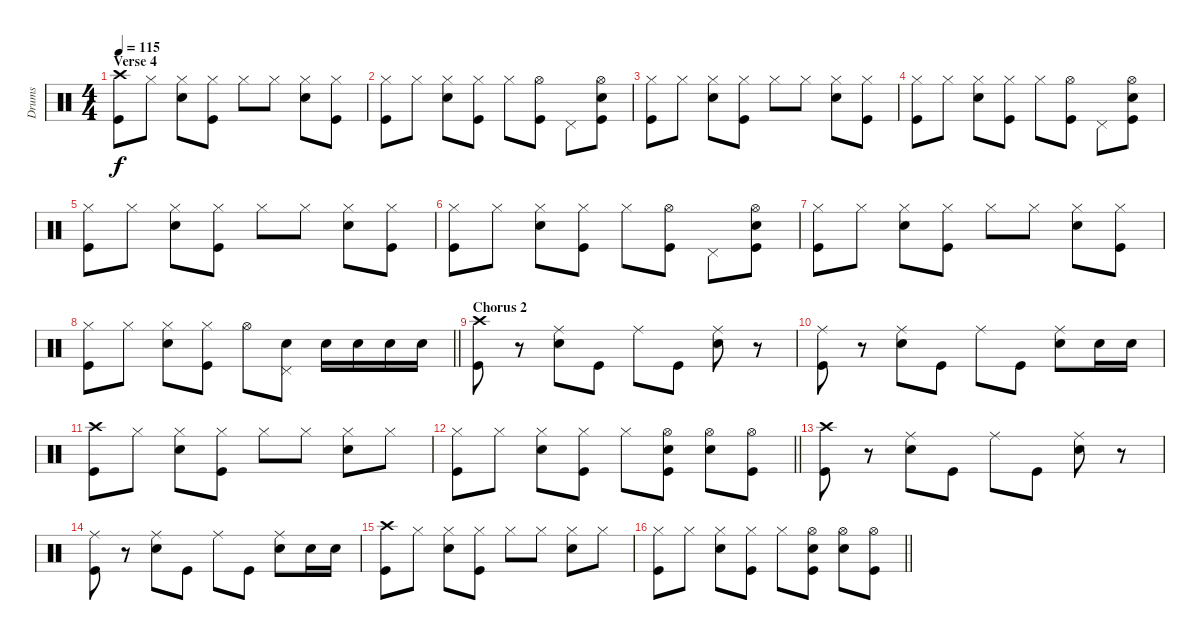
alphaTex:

\track ("Drums" "Drums") {instrument percussion}
\staff {score}
\articulation defaults
\ts (4 4)
\section ("" "Verse 4")
\tempo 115
\clef neutral
\ks c
("Crash high (hit)" "Kick (hit)").8{dy f} "Hi-Hat (closed)".8 ("Hi-Hat (closed)" "Snare (hit) 2").8 ("Hi-Hat (closed)" "Kick (hit)").8 "Hi-Hat (closed)".8 "Hi-Hat (closed)".8 ("Hi-Hat (closed)" "Snare (hit) 2").8 ("Hi-Hat (closed)" "Kick (hit)").8 |
("Hi-Hat (closed)" "Kick (hit)").8 "Hi-Hat (closed)".8 ("Hi-Hat (closed)" "Snare (hit) 2").8 ("Hi-Hat (closed)" "Kick (hit)").8 "Hi-Hat (closed)".8 ("Hi-Hat (open)" "Kick (hit)").8 "Pedal Hi-Hat (hit)".8 ("Hi-Hat (open)" "Snare (hit) 2" "Kick (hit)").8 |
("Hi-Hat (closed)" "Kick (hit)").8 "Hi-Hat (closed)".8 ("Hi-Hat (closed)" "Snare (hit) 2").8 ("Hi-Hat (closed)" "Kick (hit)").8 "Hi-Hat (closed)".8 "Hi-Hat (closed)".8 ("Hi-Hat (closed)" "Snare (hit) 2").8 ("Hi-Hat (closed)" "Kick (hit)").8 |
("Hi-Hat (closed)" "Kick (hit)").8 "Hi-Hat (closed)".8 ("Hi-Hat (closed)" "Snare (hit) 2").8 ("Hi-Hat (closed)" "Kick (hit)").8 "Hi-Hat (closed)".8 ("Hi-Hat (open)" "Kick (hit)").8 "Pedal Hi-Hat (hit)".8 ("Hi-Hat (open)" "Snare (hit) 2" "Kick (hit)").8 |
("Hi-Hat (closed)" "Kick (hit)").8 "Hi-Hat (closed)".8 ("Hi-Hat (closed)" "Snare (hit) 2").8 ("Hi-Hat (closed)" "Kick (hit)").8 "Hi-Hat (closed)".8 "Hi-Hat (closed)".8 ("Hi-Hat (closed)" "Snare (hit) 2").8 ("Hi-Hat (closed)" "Kick (hit)").8 |
("Hi-Hat (closed)" "Kick (hit)").8 "Hi-Hat (closed)".8 ("Hi-Hat (closed)" "Snare (hit) 2").8 ("Hi-Hat (closed)" "Kick (hit)").8 "Hi-Hat (closed)".8 ("Hi-Hat (open)" "Kick (hit)").8 "Pedal Hi-Hat (hit)".8 ("Hi-Hat (open)" "Snare (hit) 2" "Kick (hit)").8 |
("Hi-Hat (closed)" "Kick (hit)").8 "Hi-Hat (closed)".8 ("Hi-Hat (closed)" "Snare (hit) 2").8 ("Hi-Hat (closed)" "Kick (hit)").8 "Hi-Hat (closed)".8 "Hi-Hat (closed)".8 ("Hi-Hat (closed)" "Snare (hit) 2").8 ("Hi-Hat (closed)" "Kick (hit)").8 |
\barLineRight lightlight
("Hi-Hat (closed)" "Kick (hit)").8 "Hi-Hat (closed)".8 ("Hi-Hat (closed)" "Snare (hit) 2").8 ("Hi-Hat (closed)" "Kick (hit)").8 "Hi-Hat (open)".8 ("Pedal Hi-Hat (hit)" "Snare (hit) 2").8 "Snare (hit) 2".16 "Snare (hit) 2".16 "Snare (hit) 2".16 "Snare (hit) 2".16 |
\section ("" "Chorus 2")
("Crash high (hit)" "Kick (hit)").8 r.8 ("Ride (middle)" "Snare (hit) 2").8 "Kick (hit)".8 "Ride (middle)".8 "Kick (hit)".8 ("Ride (middle)" "Snare (hit) 2").8 r.8 |
("Ride (middle)" "Kick (hit)").8 r.8 ("Ride (middle)" "Snare (hit) 2").8 "Kick (hit)".8 "Ride (middle)".8 "Kick (hit)".8 ("Ride (middle)" "Snare (hit) 2").8 "Snare (hit) 2".16 "Snare (hit) 2".16 |
("Crash high (hit)" "Kick (hit)").8 "Hi-Hat (closed)".8 ("Hi-Hat (closed)" "Snare (hit) 2").8 ("Hi-Hat (closed)" "Kick (hit)").8 "Hi-Hat (closed)".8 "Hi-Hat (closed)".8 ("Hi-Hat (closed)" "Snare (hit) 2").8 "Hi-Hat (closed)".8 |
\barLineRight lightlight
("Hi-Hat (closed)" "Kick (hit)").8 "Hi-Hat (closed)".8 ("Hi-Hat (closed)" "Snare (hit) 2").8 ("Hi-Hat (closed)" "Kick (hit)").8 "Hi-Hat (closed)".8 ("Hi-Hat (open)" "Snare (hit) 2" "Kick (hit)").8 ("Hi-Hat (open)" "Snare (hit) 2").8 ("Hi-Hat (open)" "Kick (hit)").8 |
("Crash high (hit)" "Kick (hit)").8 r.8 ("Ride (middle)" "Snare (hit) 2").8 "Kick (hit)".8 "Ride (middle)".8 "Kick (hit)".8 ("Ride (middle)" "Snare (hit) 2").8 r.8 |
("Ride (middle)" "Kick (hit)").8 r.8 ("Ride (middle)" "Snare (hit) 2").8 "Kick (hit)".8 "Ride (middle)".8 "Kick (hit)".8 ("Ride (middle)" "Snare (hit) 2").8 "Snare (hit) 2".16 "Snare (hit) 2".16 |
("Crash high (hit)" "Kick (hit)").8 "Hi-Hat (closed)".8 ("Hi-Hat (closed)" "Snare (hit) 2").8 ("Hi-Hat (closed)" "Kick (hit)").8 "Hi-Hat (closed)".8 "Hi-Hat (closed)".8 ("Hi-Hat (closed)" "Snare (hit) 2").8 "Hi-Hat (closed)".8 |
\barLineRight lightlight
("Hi-Hat (closed)" "Kick (hit)").8 "Hi-Hat (closed)".8 ("Hi-Hat (closed)" "Snare (hit) 2").8 ("Hi-Hat (closed)" "Kick (hit)").8 "Hi-Hat (closed)".8 ("Hi-Hat (open)" "Snare (hit) 2" "Kick (hit)").8 ("Hi-Hat (open)" "Snare (hit) 2").8 ("Hi-Hat (open)" "Kick (hit)").8
